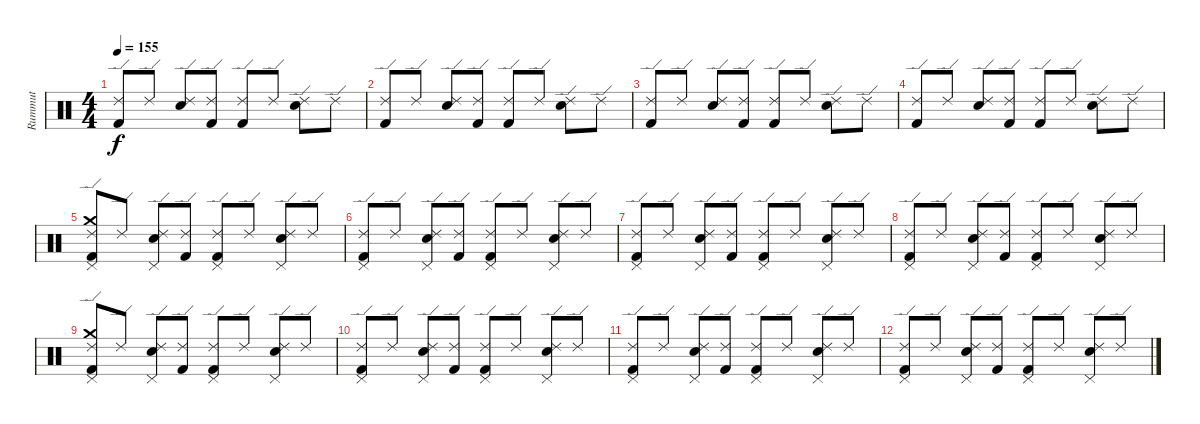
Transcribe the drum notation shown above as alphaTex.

\track ("Rummut" "Rummut") {instrument percussion}
\staff {score}
\articulation defaults
\ts (4 4)
\tempo 155
\clef neutral
\ks c
("Kick (hit) 2" "Ride (edge) 2").8{dy f} "Ride (edge) 2".8 ("Electric Snare (hit)" "Ride (edge) 2").8 ("Kick (hit) 2" "Ride (edge) 2").8 ("Kick (hit) 2" "Ride (edge) 2").8 "Ride (edge) 2".8 ("Electric Snare (hit)" "Ride (edge) 2").8 "Ride (edge) 2".8 |
("Kick (hit) 2" "Ride (edge) 2").8 "Ride (edge) 2".8 ("Electric Snare (hit)" "Ride (edge) 2").8 ("Kick (hit) 2" "Ride (edge) 2").8 ("Kick (hit) 2" "Ride (edge) 2").8 "Ride (edge) 2".8 ("Electric Snare (hit)" "Ride (edge) 2").8 "Ride (edge) 2".8 |
("Kick (hit) 2" "Ride (edge) 2").8 "Ride (edge) 2".8 ("Electric Snare (hit)" "Ride (edge) 2").8 ("Kick (hit) 2" "Ride (edge) 2").8 ("Kick (hit) 2" "Ride (edge) 2").8 "Ride (edge) 2".8 ("Electric Snare (hit)" "Ride (edge) 2").8 "Ride (edge) 2".8 |
("Kick (hit) 2" "Ride (edge) 2").8 "Ride (edge) 2".8 ("Electric Snare (hit)" "Ride (edge) 2").8 ("Kick (hit) 2" "Ride (edge) 2").8 ("Kick (hit) 2" "Ride (edge) 2").8 "Ride (edge) 2".8 ("Electric Snare (hit)" "Ride (edge) 2").8 "Ride (edge) 2".8 |
("Kick (hit) 2" "Ride (edge) 2" "Crash medium (hit)" "Pedal Hi-Hat (hit)").8 "Ride (edge) 2".8 ("Electric Snare (hit)" "Ride (edge) 2" "Pedal Hi-Hat (hit)").8 ("Kick (hit) 2" "Ride (edge) 2").8 ("Kick (hit) 2" "Ride (edge) 2" "Pedal Hi-Hat (hit)").8 "Ride (edge) 2".8 ("Electric Snare (hit)" "Ride (edge) 2" "Pedal Hi-Hat (hit)").8 "Ride (edge) 2".8 |
("Kick (hit) 2" "Ride (edge) 2" "Pedal Hi-Hat (hit)").8 "Ride (edge) 2".8 ("Electric Snare (hit)" "Ride (edge) 2" "Pedal Hi-Hat (hit)").8 ("Kick (hit) 2" "Ride (edge) 2").8 ("Kick (hit) 2" "Ride (edge) 2" "Pedal Hi-Hat (hit)").8 "Ride (edge) 2".8 ("Electric Snare (hit)" "Ride (edge) 2" "Pedal Hi-Hat (hit)").8 "Ride (edge) 2".8 |
("Kick (hit) 2" "Ride (edge) 2" "Pedal Hi-Hat (hit)").8 "Ride (edge) 2".8 ("Electric Snare (hit)" "Ride (edge) 2" "Pedal Hi-Hat (hit)").8 ("Kick (hit) 2" "Ride (edge) 2").8 ("Kick (hit) 2" "Ride (edge) 2" "Pedal Hi-Hat (hit)").8 "Ride (edge) 2".8 ("Electric Snare (hit)" "Ride (edge) 2" "Pedal Hi-Hat (hit)").8 "Ride (edge) 2".8 |
("Kick (hit) 2" "Ride (edge) 2" "Pedal Hi-Hat (hit)").8 "Ride (edge) 2".8 ("Electric Snare (hit)" "Ride (edge) 2" "Pedal Hi-Hat (hit)").8 ("Kick (hit) 2" "Ride (edge) 2").8 ("Kick (hit) 2" "Ride (edge) 2" "Pedal Hi-Hat (hit)").8 "Ride (edge) 2".8 ("Electric Snare (hit)" "Ride (edge) 2" "Pedal Hi-Hat (hit)").8 "Ride (edge) 2".8 |
("Kick (hit) 2" "Ride (edge) 2" "Crash medium (hit)" "Pedal Hi-Hat (hit)").8 "Ride (edge) 2".8 ("Electric Snare (hit)" "Ride (edge) 2" "Pedal Hi-Hat (hit)").8 ("Kick (hit) 2" "Ride (edge) 2").8 ("Kick (hit) 2" "Ride (edge) 2" "Pedal Hi-Hat (hit)").8 "Ride (edge) 2".8 ("Electric Snare (hit)" "Ride (edge) 2" "Pedal Hi-Hat (hit)").8 "Ride (edge) 2".8 |
("Kick (hit) 2" "Ride (edge) 2" "Pedal Hi-Hat (hit)").8 "Ride (edge) 2".8 ("Electric Snare (hit)" "Ride (edge) 2" "Pedal Hi-Hat (hit)").8 ("Kick (hit) 2" "Ride (edge) 2").8 ("Kick (hit) 2" "Ride (edge) 2" "Pedal Hi-Hat (hit)").8 "Ride (edge) 2".8 ("Electric Snare (hit)" "Ride (edge) 2" "Pedal Hi-Hat (hit)").8 "Ride (edge) 2".8 |
("Kick (hit) 2" "Ride (edge) 2" "Pedal Hi-Hat (hit)").8 "Ride (edge) 2".8 ("Electric Snare (hit)" "Ride (edge) 2" "Pedal Hi-Hat (hit)").8 ("Kick (hit) 2" "Ride (edge) 2").8 ("Kick (hit) 2" "Ride (edge) 2" "Pedal Hi-Hat (hit)").8 "Ride (edge) 2".8 ("Electric Snare (hit)" "Ride (edge) 2" "Pedal Hi-Hat (hit)").8 "Ride (edge) 2".8 |
("Kick (hit) 2" "Ride (edge) 2" "Pedal Hi-Hat (hit)").8 "Ride (edge) 2".8 ("Electric Snare (hit)" "Ride (edge) 2" "Pedal Hi-Hat (hit)").8 ("Kick (hit) 2" "Ride (edge) 2").8 ("Kick (hit) 2" "Ride (edge) 2" "Pedal Hi-Hat (hit)").8 "Ride (edge) 2".8 ("Electric Snare (hit)" "Ride (edge) 2" "Pedal Hi-Hat (hit)").8 "Ride (edge) 2".8
